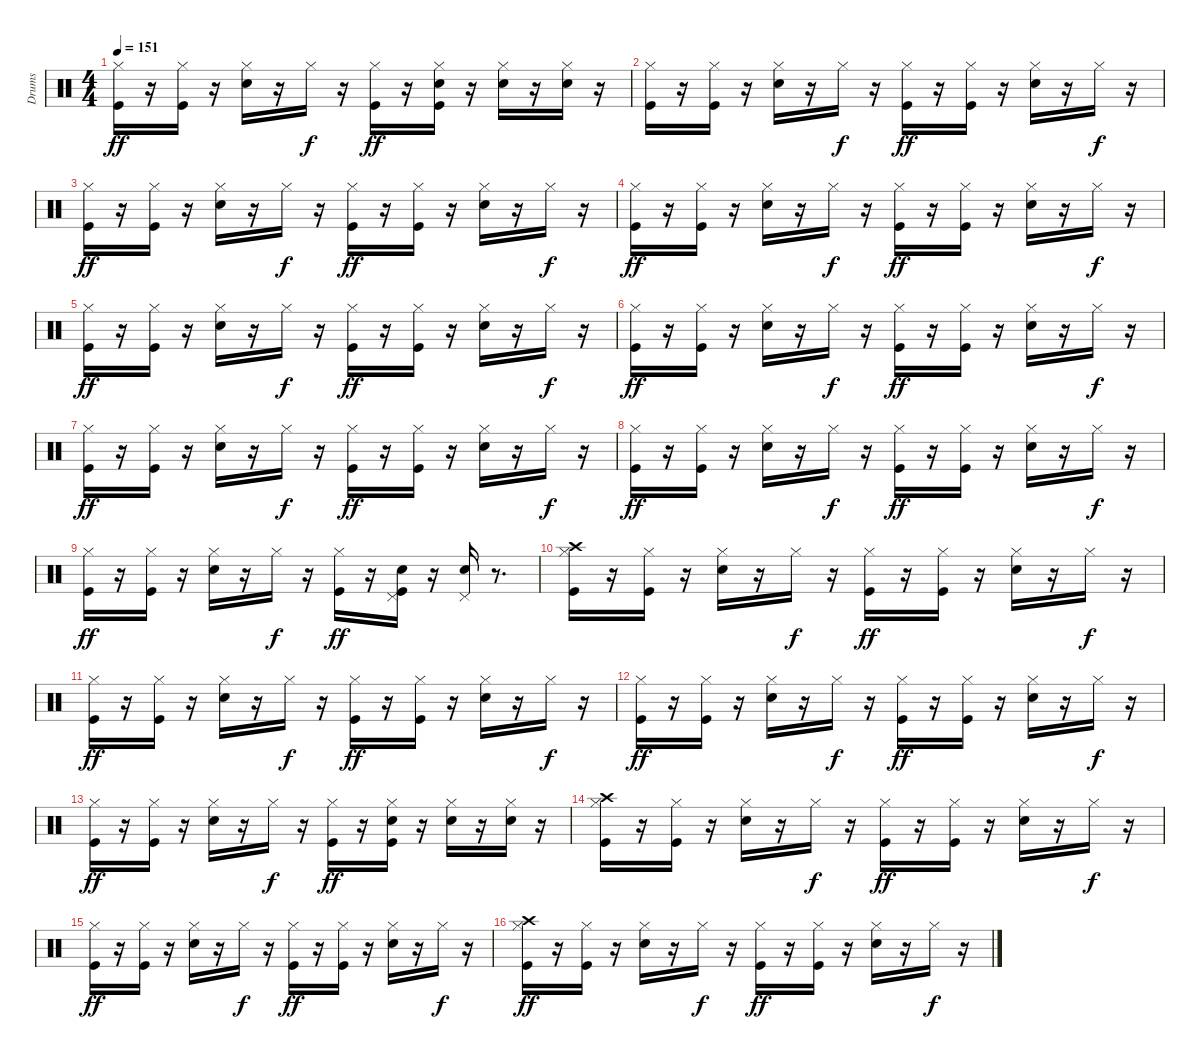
\track ("Drums" "Drums") {instrument percussion}
\staff {score}
\articulation defaults
\ts (4 4)
\tempo 151
\clef neutral
\ks c
("Kick (hit)" "Hi-Hat (closed)").16{dy ff} r.16 ("Kick (hit)" "Hi-Hat (closed)").16 r.16 ("Snare (hit) 2" "Hi-Hat (closed)").16 r.16 "Hi-Hat (closed)".16{dy f} r.16 ("Kick (hit)" "Hi-Hat (closed)").16{dy ff} r.16 ("Kick (hit)" "Snare (hit) 2" "Hi-Hat (closed)").16 r.16 ("Snare (hit) 2" "Hi-Hat (closed)").16 r.16 ("Snare (hit) 2" "Hi-Hat (closed)").16 r.16 |
("Kick (hit)" "Hi-Hat (closed)").16 r.16 ("Kick (hit)" "Hi-Hat (closed)").16 r.16 ("Snare (hit) 2" "Hi-Hat (closed)").16 r.16 "Hi-Hat (closed)".16{dy f} r.16 ("Kick (hit)" "Hi-Hat (closed)").16{dy ff} r.16 ("Kick (hit)" "Hi-Hat (closed)").16 r.16 ("Snare (hit) 2" "Hi-Hat (closed)").16 r.16 "Hi-Hat (closed)".16{dy f} r.16 |
("Kick (hit)" "Hi-Hat (closed)").16{dy ff} r.16 ("Kick (hit)" "Hi-Hat (closed)").16 r.16 ("Snare (hit) 2" "Hi-Hat (closed)").16 r.16 "Hi-Hat (closed)".16{dy f} r.16 ("Kick (hit)" "Hi-Hat (closed)").16{dy ff} r.16 ("Kick (hit)" "Hi-Hat (closed)").16 r.16 ("Snare (hit) 2" "Hi-Hat (closed)").16 r.16 "Hi-Hat (closed)".16{dy f} r.16 |
("Kick (hit)" "Hi-Hat (closed)").16{dy ff} r.16 ("Kick (hit)" "Hi-Hat (closed)").16 r.16 ("Snare (hit) 2" "Hi-Hat (closed)").16 r.16 "Hi-Hat (closed)".16{dy f} r.16 ("Kick (hit)" "Hi-Hat (closed)").16{dy ff} r.16 ("Kick (hit)" "Hi-Hat (closed)").16 r.16 ("Snare (hit) 2" "Hi-Hat (closed)").16 r.16 "Hi-Hat (closed)".16{dy f} r.16 |
("Kick (hit)" "Hi-Hat (closed)").16{dy ff} r.16 ("Kick (hit)" "Hi-Hat (closed)").16 r.16 ("Snare (hit) 2" "Hi-Hat (closed)").16 r.16 "Hi-Hat (closed)".16{dy f} r.16 ("Kick (hit)" "Hi-Hat (closed)").16{dy ff} r.16 ("Kick (hit)" "Hi-Hat (closed)").16 r.16 ("Snare (hit) 2" "Hi-Hat (closed)").16 r.16 "Hi-Hat (closed)".16{dy f} r.16 |
("Kick (hit)" "Hi-Hat (closed)").16{dy ff} r.16 ("Kick (hit)" "Hi-Hat (closed)").16 r.16 ("Snare (hit) 2" "Hi-Hat (closed)").16 r.16 "Hi-Hat (closed)".16{dy f} r.16 ("Kick (hit)" "Hi-Hat (closed)").16{dy ff} r.16 ("Kick (hit)" "Hi-Hat (closed)").16 r.16 ("Snare (hit) 2" "Hi-Hat (closed)").16 r.16 "Hi-Hat (closed)".16{dy f} r.16 |
("Kick (hit)" "Hi-Hat (closed)").16{dy ff} r.16 ("Kick (hit)" "Hi-Hat (closed)").16 r.16 ("Snare (hit) 2" "Hi-Hat (closed)").16 r.16 "Hi-Hat (closed)".16{dy f} r.16 ("Kick (hit)" "Hi-Hat (closed)").16{dy ff} r.16 ("Kick (hit)" "Hi-Hat (closed)").16 r.16 ("Snare (hit) 2" "Hi-Hat (closed)").16 r.16 "Hi-Hat (closed)".16{dy f} r.16 |
("Kick (hit)" "Hi-Hat (closed)").16{dy ff} r.16 ("Kick (hit)" "Hi-Hat (closed)").16 r.16 ("Snare (hit) 2" "Hi-Hat (closed)").16 r.16 "Hi-Hat (closed)".16{dy f} r.16 ("Kick (hit)" "Hi-Hat (closed)").16{dy ff} r.16 ("Kick (hit)" "Hi-Hat (closed)").16 r.16 ("Snare (hit) 2" "Hi-Hat (closed)").16 r.16 "Hi-Hat (closed)".16{dy f} r.16 |
("Kick (hit)" "Hi-Hat (closed)").16{dy ff} r.16 ("Kick (hit)" "Hi-Hat (closed)").16 r.16 ("Snare (hit) 2" "Hi-Hat (closed)").16 r.16 "Hi-Hat (closed)".16{dy f} r.16 ("Kick (hit)" "Hi-Hat (closed)").16{dy ff} r.16 ("Kick (hit)" "Snare (hit) 2" "Pedal Hi-Hat (hit)").16 r.16 ("Snare (hit) 2" "Pedal Hi-Hat (hit)").16 r.8{d} |
("Kick (hit)" "Hi-Hat (closed)" "Crash high (hit)").16 r.16 ("Kick (hit)" "Hi-Hat (closed)").16 r.16 ("Snare (hit) 2" "Hi-Hat (closed)").16 r.16 "Hi-Hat (closed)".16{dy f} r.16 ("Kick (hit)" "Hi-Hat (closed)").16{dy ff} r.16 ("Kick (hit)" "Hi-Hat (closed)").16 r.16 ("Snare (hit) 2" "Hi-Hat (closed)").16 r.16 "Hi-Hat (closed)".16{dy f} r.16 |
("Kick (hit)" "Hi-Hat (closed)").16{dy ff} r.16 ("Kick (hit)" "Hi-Hat (closed)").16 r.16 ("Snare (hit) 2" "Hi-Hat (closed)").16 r.16 "Hi-Hat (closed)".16{dy f} r.16 ("Kick (hit)" "Hi-Hat (closed)").16{dy ff} r.16 ("Kick (hit)" "Hi-Hat (closed)").16 r.16 ("Snare (hit) 2" "Hi-Hat (closed)").16 r.16 "Hi-Hat (closed)".16{dy f} r.16 |
("Kick (hit)" "Hi-Hat (closed)").16{dy ff} r.16 ("Kick (hit)" "Hi-Hat (closed)").16 r.16 ("Snare (hit) 2" "Hi-Hat (closed)").16 r.16 "Hi-Hat (closed)".16{dy f} r.16 ("Kick (hit)" "Hi-Hat (closed)").16{dy ff} r.16 ("Kick (hit)" "Hi-Hat (closed)").16 r.16 ("Snare (hit) 2" "Hi-Hat (closed)").16 r.16 "Hi-Hat (closed)".16{dy f} r.16 |
("Kick (hit)" "Hi-Hat (closed)").16{dy ff} r.16 ("Kick (hit)" "Hi-Hat (closed)").16 r.16 ("Snare (hit) 2" "Hi-Hat (closed)").16 r.16 "Hi-Hat (closed)".16{dy f} r.16 ("Kick (hit)" "Hi-Hat (closed)").16{dy ff} r.16 ("Kick (hit)" "Snare (hit) 2" "Hi-Hat (closed)").16 r.16 ("Snare (hit) 2" "Hi-Hat (closed)").16 r.16 ("Snare (hit) 2" "Hi-Hat (closed)").16 r.16 |
("Kick (hit)" "Hi-Hat (closed)" "Crash high (hit)").16 r.16 ("Kick (hit)" "Hi-Hat (closed)").16 r.16 ("Snare (hit) 2" "Hi-Hat (closed)").16 r.16 "Hi-Hat (closed)".16{dy f} r.16 ("Kick (hit)" "Hi-Hat (closed)").16{dy ff} r.16 ("Kick (hit)" "Hi-Hat (closed)").16 r.16 ("Snare (hit) 2" "Hi-Hat (closed)").16 r.16 "Hi-Hat (closed)".16{dy f} r.16 |
("Kick (hit)" "Hi-Hat (closed)").16{dy ff} r.16 ("Kick (hit)" "Hi-Hat (closed)").16 r.16 ("Snare (hit) 2" "Hi-Hat (closed)").16 r.16 "Hi-Hat (closed)".16{dy f} r.16 ("Kick (hit)" "Hi-Hat (closed)").16{dy ff} r.16 ("Kick (hit)" "Hi-Hat (closed)").16 r.16 ("Snare (hit) 2" "Hi-Hat (closed)").16 r.16 "Hi-Hat (closed)".16{dy f} r.16 |
("Kick (hit)" "Hi-Hat (closed)" "Crash high (hit)").16{dy ff} r.16 ("Kick (hit)" "Hi-Hat (closed)").16 r.16 ("Snare (hit) 2" "Hi-Hat (closed)").16 r.16 "Hi-Hat (closed)".16{dy f} r.16 ("Kick (hit)" "Hi-Hat (closed)").16{dy ff} r.16 ("Kick (hit)" "Hi-Hat (closed)").16 r.16 ("Snare (hit) 2" "Hi-Hat (closed)").16 r.16 "Hi-Hat (closed)".16{dy f} r.16
